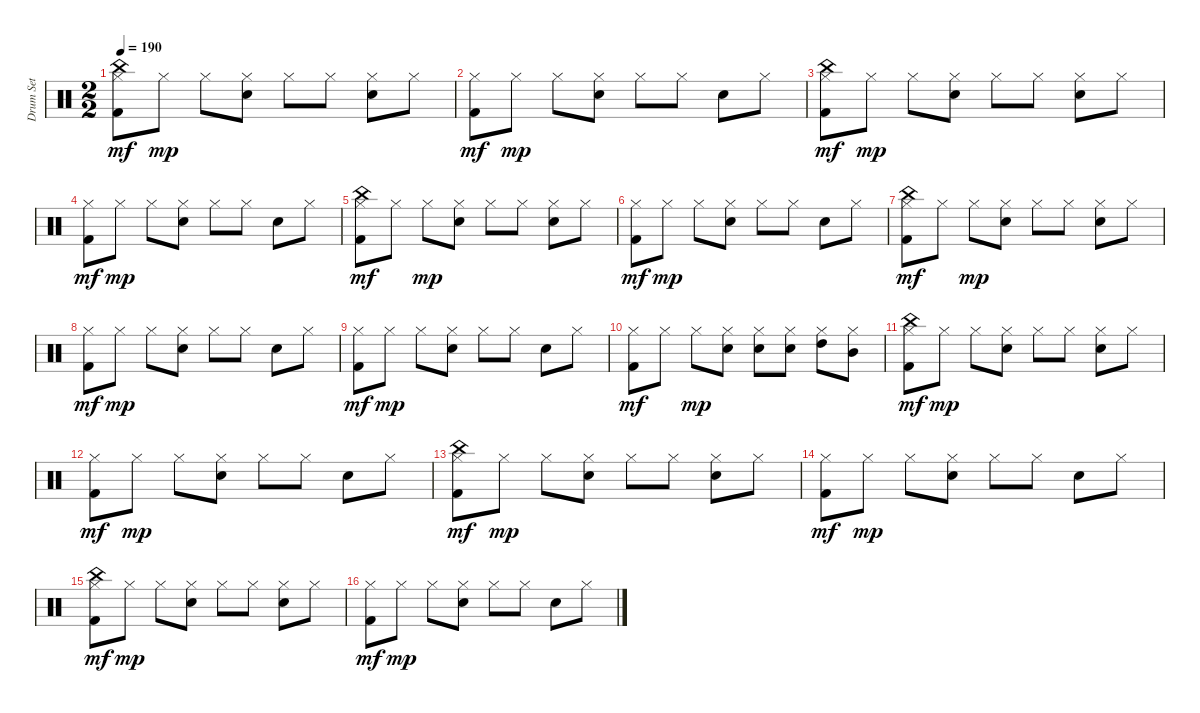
\track ("Drum Set" "Drum Set") {instrument percussion}
\staff {score}
\articulation defaults
\ts (2 2)
\tempo 190
\clef neutral
\ks c
("Kick (hit) 2" "Hi-Hat (closed)" "China (hit)").8{dy mf} "Hi-Hat (closed)".8{dy mp} "Hi-Hat (closed)".8 ("Snare (hit) 2" "Hi-Hat (closed)").8 "Hi-Hat (closed)".8 "Hi-Hat (closed)".8 ("Snare (hit) 2" "Hi-Hat (closed)").8 "Hi-Hat (closed)".8 |
("Kick (hit) 2" "Hi-Hat (closed)").8{dy mf} "Hi-Hat (closed)".8{dy mp} "Hi-Hat (closed)".8 ("Snare (hit) 2" "Hi-Hat (closed)").8 "Hi-Hat (closed)".8 "Hi-Hat (closed)".8 "Snare (hit) 2".8 "Hi-Hat (closed)".8 |
("Kick (hit) 2" "Hi-Hat (closed)" "China (hit)").8{dy mf} "Hi-Hat (closed)".8{dy mp} "Hi-Hat (closed)".8 ("Snare (hit) 2" "Hi-Hat (closed)").8 "Hi-Hat (closed)".8 "Hi-Hat (closed)".8 ("Snare (hit) 2" "Hi-Hat (closed)").8 "Hi-Hat (closed)".8 |
("Kick (hit) 2" "Hi-Hat (closed)").8{dy mf} "Hi-Hat (closed)".8{dy mp} "Hi-Hat (closed)".8 ("Snare (hit) 2" "Hi-Hat (closed)").8 "Hi-Hat (closed)".8 "Hi-Hat (closed)".8 "Snare (hit) 2".8 "Hi-Hat (closed)".8 |
("Kick (hit) 2" "China (hit)" "Hi-Hat (closed)").8{dy mf} "Hi-Hat (closed)".8 "Hi-Hat (closed)".8{dy mp} ("Snare (hit) 2" "Hi-Hat (closed)").8 "Hi-Hat (closed)".8 "Hi-Hat (closed)".8 ("Snare (hit) 2" "Hi-Hat (closed)").8 "Hi-Hat (closed)".8 |
("Kick (hit) 2" "Hi-Hat (closed)").8{dy mf} "Hi-Hat (closed)".8{dy mp} "Hi-Hat (closed)".8 ("Snare (hit) 2" "Hi-Hat (closed)").8 "Hi-Hat (closed)".8 "Hi-Hat (closed)".8 "Snare (hit) 2".8 "Hi-Hat (closed)".8 |
("Kick (hit) 2" "China (hit)" "Hi-Hat (closed)").8{dy mf} "Hi-Hat (closed)".8 "Hi-Hat (closed)".8{dy mp} ("Snare (hit) 2" "Hi-Hat (closed)").8 "Hi-Hat (closed)".8 "Hi-Hat (closed)".8 ("Snare (hit) 2" "Hi-Hat (closed)").8 "Hi-Hat (closed)".8 |
("Kick (hit) 2" "Hi-Hat (closed)").8{dy mf} "Hi-Hat (closed)".8{dy mp} "Hi-Hat (closed)".8 ("Snare (hit) 2" "Hi-Hat (closed)").8 "Hi-Hat (closed)".8 "Hi-Hat (closed)".8 "Snare (hit) 2".8 "Hi-Hat (closed)".8 |
("Kick (hit) 2" "Hi-Hat (closed)").8{dy mf} "Hi-Hat (closed)".8{dy mp} "Hi-Hat (closed)".8 ("Snare (hit) 2" "Hi-Hat (closed)").8 "Hi-Hat (closed)".8 "Hi-Hat (closed)".8 "Snare (hit) 2".8 "Hi-Hat (closed)".8 |
("Kick (hit) 2" "Hi-Hat (closed)").8{dy mf} "Hi-Hat (closed)".8 "Hi-Hat (closed)".8{dy mp} ("Hi-Hat (closed)" "Snare (hit) 2").8 ("Snare (hit) 2" "Hi-Hat (closed)").8 ("Snare (hit) 2" "Hi-Hat (closed)").8 ("High Tom (hit)" "Hi-Hat (closed)").8 ("Mid Tom (hit)" "Hi-Hat (closed)").8 |
("Kick (hit) 2" "China (hit)" "Hi-Hat (closed)").8{dy mf} "Hi-Hat (closed)".8{dy mp} "Hi-Hat (closed)".8 ("Snare (hit) 2" "Hi-Hat (closed)").8 "Hi-Hat (closed)".8 "Hi-Hat (closed)".8 ("Snare (hit) 2" "Hi-Hat (closed)").8 "Hi-Hat (closed)".8 |
("Kick (hit) 2" "Hi-Hat (closed)").8{dy mf} "Hi-Hat (closed)".8{dy mp} "Hi-Hat (closed)".8 ("Snare (hit) 2" "Hi-Hat (closed)").8 "Hi-Hat (closed)".8 "Hi-Hat (closed)".8 "Snare (hit) 2".8 "Hi-Hat (closed)".8 |
("Kick (hit) 2" "China (hit)" "Hi-Hat (closed)").8{dy mf} "Hi-Hat (closed)".8{dy mp} "Hi-Hat (closed)".8 ("Snare (hit) 2" "Hi-Hat (closed)").8 "Hi-Hat (closed)".8 "Hi-Hat (closed)".8 ("Snare (hit) 2" "Hi-Hat (closed)").8 "Hi-Hat (closed)".8 |
("Kick (hit) 2" "Hi-Hat (closed)").8{dy mf} "Hi-Hat (closed)".8{dy mp} "Hi-Hat (closed)".8 ("Snare (hit) 2" "Hi-Hat (closed)").8 "Hi-Hat (closed)".8 "Hi-Hat (closed)".8 "Snare (hit) 2".8 "Hi-Hat (closed)".8 |
("Kick (hit) 2" "Hi-Hat (closed)" "China (hit)").8{dy mf} "Hi-Hat (closed)".8{dy mp} "Hi-Hat (closed)".8 ("Snare (hit) 2" "Hi-Hat (closed)").8 "Hi-Hat (closed)".8 "Hi-Hat (closed)".8 ("Snare (hit) 2" "Hi-Hat (closed)").8 "Hi-Hat (closed)".8 |
("Kick (hit) 2" "Hi-Hat (closed)").8{dy mf} "Hi-Hat (closed)".8{dy mp} "Hi-Hat (closed)".8 ("Snare (hit) 2" "Hi-Hat (closed)").8 "Hi-Hat (closed)".8 "Hi-Hat (closed)".8 "Snare (hit) 2".8 "Hi-Hat (closed)".8
